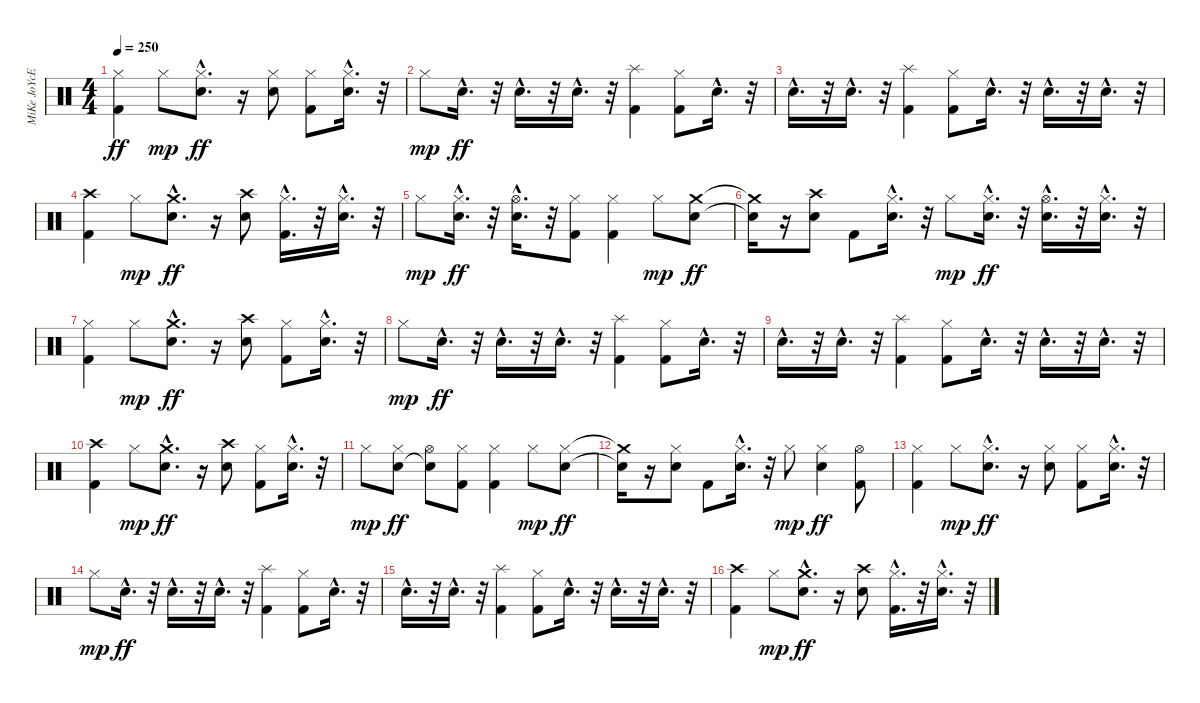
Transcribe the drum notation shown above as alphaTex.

\track ("MiKe JoYcE" "MiKe JoYcE") {instrument percussion}
\staff {score}
\articulation defaults
\ts (4 4)
\tempo 250
\clef neutral
\ks c
("Hi-Hat (closed)" "Kick (hit) 2").4{dy ff} "Hi-Hat (closed)".8{dy mp} ("Hi-Hat (closed)"{hac} "Electric Snare (hit)"{hac}).8{d dy ff} r.16 ("Hi-Hat (closed)" "Electric Snare (hit)").8 ("Hi-Hat (closed)" "Kick (hit) 2").8 ("Hi-Hat (closed)"{hac} "Electric Snare (hit)"{hac}).16{d} r.32 |
"Hi-Hat (closed)".8{dy mp} "Electric Snare (hit)"{hac}.16{d dy ff} r.32 "Electric Snare (hit)"{hac}.16{d} r.32 "Electric Snare (hit)"{hac}.16{d} r.32 ("Splash (hit)" "Kick (hit) 2").4 ("Hi-Hat (closed)" "Kick (hit) 2").8 "Electric Snare (hit)"{hac}.16{d} r.32 |
"Electric Snare (hit)"{hac}.16{d} r.32 "Electric Snare (hit)"{hac}.16{d} r.32 ("Splash (hit)" "Kick (hit) 2").4 ("Hi-Hat (closed)" "Kick (hit) 2").8 "Electric Snare (hit)"{hac}.16{d} r.32 "Electric Snare (hit)"{hac}.16{d} r.32 "Electric Snare (hit)"{hac}.16{d} r.32 |
("Crash high (hit)" "Kick (hit) 2").4 "Hi-Hat (closed)".8{dy mp} ("Crash medium (hit)"{hac} "Electric Snare (hit)"{hac}).8{d dy ff} r.16 ("Crash high (hit)" "Electric Snare (hit)").8 ("Hi-Hat (closed)"{hac} "Kick (hit) 2"{hac}).16{d} r.32 ("Hi-Hat (closed)"{hac} "Electric Snare (hit)"{hac}).16{d} r.32 |
"Hi-Hat (closed)".8{dy mp} ("Hi-Hat (closed)"{hac} "Electric Snare (hit)"{hac}).16{d dy ff} r.32 ("Hi-Hat (open)"{hac} "Electric Snare (hit)"{hac}).16{d} r.32 ("Hi-Hat (closed)" "Kick (hit) 2").8 ("Hi-Hat (closed)" "Kick (hit) 2").4 "Hi-Hat (closed)".8{dy mp} ("Crash medium (hit)" "Electric Snare (hit)").8{dy ff} |
("Crash medium (hit)"{t} "Electric Snare (hit)"{t}).16 r.16 ("Crash high (hit)" "Electric Snare (hit)").8 "Kick (hit) 2".8 ("Hi-Hat (closed)"{hac} "Electric Snare (hit)"{hac}).16{d} r.32 "Hi-Hat (closed)".8{dy mp} ("Hi-Hat (closed)"{hac} "Electric Snare (hit)"{hac}).16{d dy ff} r.32 ("Hi-Hat (open)"{hac} "Electric Snare (hit)"{hac}).16{d} r.32 ("Hi-Hat (closed)"{hac} "Electric Snare (hit)"{hac}).16{d} r.32 |
("Hi-Hat (closed)" "Kick (hit) 2").4 "Hi-Hat (closed)".8{dy mp} ("Crash medium (hit)"{hac} "Electric Snare (hit)"{hac}).8{d dy ff} r.16 ("Crash high (hit)" "Electric Snare (hit)").8 ("Hi-Hat (closed)" "Kick (hit) 2").8 ("Hi-Hat (closed)"{hac} "Electric Snare (hit)"{hac}).16{d} r.32 |
"Hi-Hat (closed)".8{dy mp} "Electric Snare (hit)"{hac}.16{d dy ff} r.32 "Electric Snare (hit)"{hac}.16{d} r.32 "Electric Snare (hit)"{hac}.16{d} r.32 ("Splash (hit)" "Kick (hit) 2").4 ("Hi-Hat (closed)" "Kick (hit) 2").8 "Electric Snare (hit)"{hac}.16{d} r.32 |
"Electric Snare (hit)"{hac}.16{d} r.32 "Electric Snare (hit)"{hac}.16{d} r.32 ("Splash (hit)" "Kick (hit) 2").4 ("Hi-Hat (closed)" "Kick (hit) 2").8 "Electric Snare (hit)"{hac}.16{d} r.32 "Electric Snare (hit)"{hac}.16{d} r.32 "Electric Snare (hit)"{hac}.16{d} r.32 |
("Crash high (hit)" "Kick (hit) 2").4 "Hi-Hat (closed)".8{dy mp} ("Crash medium (hit)"{hac} "Electric Snare (hit)"{hac}).8{d dy ff} r.16 ("Crash high (hit)" "Electric Snare (hit)").8 ("Hi-Hat (closed)" "Kick (hit) 2").8 ("Hi-Hat (closed)"{hac} "Electric Snare (hit)"{hac}).16{d} r.32 |
"Hi-Hat (closed)".8{dy mp} ("Hi-Hat (closed)" "Electric Snare (hit)").8{dy ff} ("Hi-Hat (open)" "Electric Snare (hit)"{t}).8 ("Hi-Hat (closed)" "Kick (hit) 2").8 ("Hi-Hat (closed)" "Kick (hit) 2").4 "Hi-Hat (closed)".8{dy mp} ("Hi-Hat (closed)" "Electric Snare (hit)").8{dy ff} |
("Crash medium (hit)"{t} "Electric Snare (hit)"{t}).16 r.16 ("Hi-Hat (closed)" "Electric Snare (hit)").8 "Kick (hit) 2".8 ("Hi-Hat (closed)"{hac} "Electric Snare (hit)"{hac}).16{d} r.32 "Hi-Hat (closed)".8{dy mp} ("Hi-Hat (closed)" "Electric Snare (hit)").4{dy ff} ("Hi-Hat (open)" "Kick (hit) 2").8 |
("Hi-Hat (closed)" "Kick (hit) 2").4 "Hi-Hat (closed)".8{dy mp} ("Hi-Hat (closed)"{hac} "Electric Snare (hit)"{hac}).8{d dy ff} r.16 ("Hi-Hat (closed)" "Electric Snare (hit)").8 ("Hi-Hat (closed)" "Kick (hit) 2").8 ("Hi-Hat (closed)"{hac} "Electric Snare (hit)"{hac}).16{d} r.32 |
"Hi-Hat (closed)".8{dy mp} "Electric Snare (hit)"{hac}.16{d dy ff} r.32 "Electric Snare (hit)"{hac}.16{d} r.32 "Electric Snare (hit)"{hac}.16{d} r.32 ("Splash (hit)" "Kick (hit) 2").4 ("Hi-Hat (closed)" "Kick (hit) 2").8 "Electric Snare (hit)"{hac}.16{d} r.32 |
"Electric Snare (hit)"{hac}.16{d} r.32 "Electric Snare (hit)"{hac}.16{d} r.32 ("Splash (hit)" "Kick (hit) 2").4 ("Hi-Hat (closed)" "Kick (hit) 2").8 "Electric Snare (hit)"{hac}.16{d} r.32 "Electric Snare (hit)"{hac}.16{d} r.32 "Electric Snare (hit)"{hac}.16{d} r.32 |
("Crash high (hit)" "Kick (hit) 2").4 "Hi-Hat (closed)".8{dy mp} ("Crash medium (hit)"{hac} "Electric Snare (hit)"{hac}).8{d dy ff} r.16 ("Crash high (hit)" "Electric Snare (hit)").8 ("Hi-Hat (closed)"{hac} "Kick (hit) 2"{hac}).16{d} r.32 ("Hi-Hat (closed)"{hac} "Electric Snare (hit)"{hac}).16{d} r.32
